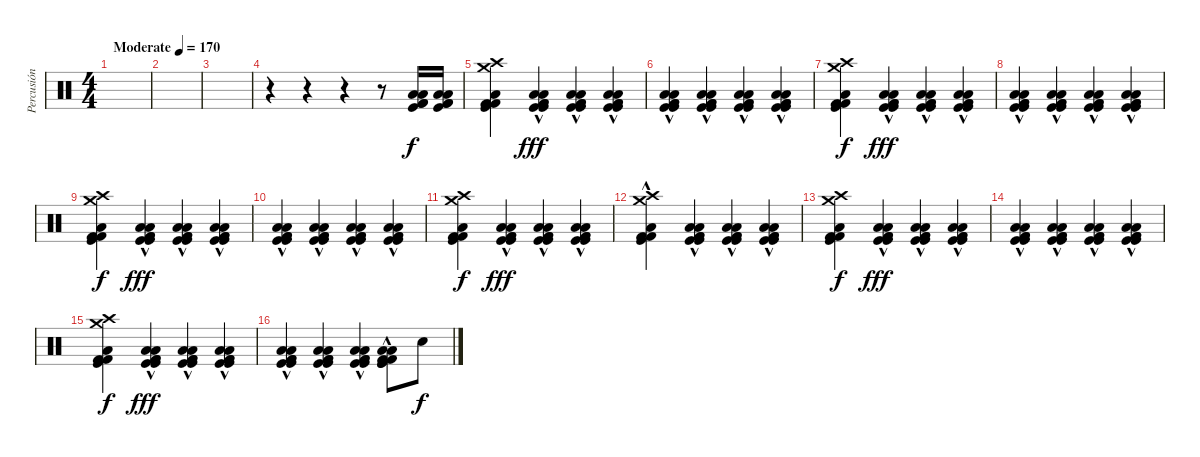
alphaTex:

\track ("Percusión" "Percusión") {instrument percussion}
\staff {score}
\articulation defaults
\ts (4 4)
\tempo (170 "Moderate")
\clef neutral
\ks c
|
|
|
r.4 r.4 r.4 r.8 ("Low Tom (hit)" "Kick (hit)" "Kick (hit) 2" "Kick (hit) 2" "Low Floor Tom (hit)").16 ("Low Tom (hit)" "Kick (hit)" "Kick (hit) 2" "Kick (hit) 2" "Low Floor Tom (hit)").16 |
("Crash medium (hit)" "Crash high (hit)" "Kick (hit)" "Kick (hit) 2" "Kick (hit) 2" "Low Floor Tom (hit)").4 ("Low Tom (hit)"{hac} "Kick (hit)"{hac} "Kick (hit)"{hac} "Kick (hit) 2"{hac} "Kick (hit) 2"{hac} "Low Floor Tom (hit)"{hac}).4{dy fff} ("Low Tom (hit)"{hac} "Kick (hit)"{hac} "Kick (hit)"{hac} "Kick (hit) 2"{hac} "Kick (hit) 2"{hac} "Low Floor Tom (hit)"{hac}).4 ("Low Tom (hit)"{hac} "Kick (hit)"{hac} "Kick (hit)"{hac} "Kick (hit) 2"{hac} "Kick (hit) 2"{hac} "Low Floor Tom (hit)"{hac}).4 |
("Low Tom (hit)"{hac} "Kick (hit)"{hac} "Kick (hit)"{hac} "Kick (hit) 2"{hac} "Kick (hit) 2"{hac} "Low Floor Tom (hit)"{hac}).4 ("Low Tom (hit)"{hac} "Kick (hit)"{hac} "Kick (hit)"{hac} "Kick (hit) 2"{hac} "Kick (hit) 2"{hac} "Low Floor Tom (hit)"{hac}).4 ("Low Tom (hit)"{hac} "Kick (hit)"{hac} "Kick (hit)"{hac} "Kick (hit) 2"{hac} "Kick (hit) 2"{hac} "Low Floor Tom (hit)"{hac}).4 ("Low Tom (hit)"{hac} "Kick (hit)"{hac} "Kick (hit)"{hac} "Kick (hit) 2"{hac} "Kick (hit) 2"{hac} "Low Floor Tom (hit)"{hac}).4 |
("Crash medium (hit)" "Crash high (hit)" "Kick (hit)" "Kick (hit) 2" "Kick (hit) 2" "Low Floor Tom (hit)").4{dy f} ("Low Tom (hit)"{hac} "Kick (hit)"{hac} "Kick (hit)"{hac} "Kick (hit) 2"{hac} "Kick (hit) 2"{hac} "Low Floor Tom (hit)"{hac}).4{dy fff} ("Low Tom (hit)"{hac} "Kick (hit)"{hac} "Kick (hit)"{hac} "Kick (hit) 2"{hac} "Kick (hit) 2"{hac} "Low Floor Tom (hit)"{hac}).4 ("Low Tom (hit)"{hac} "Kick (hit)"{hac} "Kick (hit)"{hac} "Kick (hit) 2"{hac} "Kick (hit) 2"{hac} "Low Floor Tom (hit)"{hac}).4 |
("Low Tom (hit)"{hac} "Kick (hit)"{hac} "Kick (hit)"{hac} "Kick (hit) 2"{hac} "Kick (hit) 2"{hac} "Low Floor Tom (hit)"{hac}).4 ("Low Tom (hit)"{hac} "Kick (hit)"{hac} "Kick (hit)"{hac} "Kick (hit) 2"{hac} "Kick (hit) 2"{hac} "Low Floor Tom (hit)"{hac}).4 ("Low Tom (hit)"{hac} "Kick (hit)"{hac} "Kick (hit)"{hac} "Kick (hit) 2"{hac} "Kick (hit) 2"{hac} "Low Floor Tom (hit)"{hac}).4 ("Low Tom (hit)"{hac} "Kick (hit)"{hac} "Kick (hit)"{hac} "Kick (hit) 2"{hac} "Kick (hit) 2"{hac} "Low Floor Tom (hit)"{hac}).4 |
("Crash medium (hit)" "Crash high (hit)" "Kick (hit)" "Kick (hit) 2" "Kick (hit) 2" "Low Floor Tom (hit)").4{dy f} ("Low Tom (hit)"{hac} "Kick (hit)"{hac} "Kick (hit)"{hac} "Kick (hit) 2"{hac} "Kick (hit) 2"{hac} "Low Floor Tom (hit)"{hac}).4{dy fff} ("Low Tom (hit)"{hac} "Kick (hit)"{hac} "Kick (hit)"{hac} "Kick (hit) 2"{hac} "Kick (hit) 2"{hac} "Low Floor Tom (hit)"{hac}).4 ("Low Tom (hit)"{hac} "Kick (hit)"{hac} "Kick (hit)"{hac} "Kick (hit) 2"{hac} "Kick (hit) 2"{hac} "Low Floor Tom (hit)"{hac}).4 |
("Low Tom (hit)"{hac} "Kick (hit)"{hac} "Kick (hit)"{hac} "Kick (hit) 2"{hac} "Kick (hit) 2"{hac} "Low Floor Tom (hit)"{hac}).4 ("Low Tom (hit)"{hac} "Kick (hit)"{hac} "Kick (hit)"{hac} "Kick (hit) 2"{hac} "Kick (hit) 2"{hac} "Low Floor Tom (hit)"{hac}).4 ("Low Tom (hit)"{hac} "Kick (hit)"{hac} "Kick (hit)"{hac} "Kick (hit) 2"{hac} "Kick (hit) 2"{hac} "Low Floor Tom (hit)"{hac}).4 ("Low Tom (hit)"{hac} "Kick (hit)"{hac} "Kick (hit)"{hac} "Kick (hit) 2"{hac} "Kick (hit) 2"{hac} "Low Floor Tom (hit)"{hac}).4 |
("Crash medium (hit)" "Crash high (hit)" "Kick (hit)" "Kick (hit) 2" "Kick (hit) 2" "Low Floor Tom (hit)").4{dy f} ("Low Tom (hit)"{hac} "Kick (hit)"{hac} "Kick (hit)"{hac} "Kick (hit) 2"{hac} "Kick (hit) 2"{hac} "Low Floor Tom (hit)"{hac}).4{dy fff} ("Low Tom (hit)"{hac} "Kick (hit)"{hac} "Kick (hit)"{hac} "Kick (hit) 2"{hac} "Kick (hit) 2"{hac} "Low Floor Tom (hit)"{hac}).4 ("Low Tom (hit)"{hac} "Kick (hit)"{hac} "Kick (hit)"{hac} "Kick (hit) 2"{hac} "Kick (hit) 2"{hac} "Low Floor Tom (hit)"{hac}).4 |
("Crash medium (hit)"{hac} "Crash high (hit)"{hac} "Kick (hit)"{hac} "Kick (hit) 2"{hac} "Kick (hit) 2"{hac} "Low Floor Tom (hit)"{hac}).4 ("Low Tom (hit)"{hac} "Kick (hit)"{hac} "Kick (hit)"{hac} "Kick (hit) 2"{hac} "Kick (hit) 2"{hac} "Low Floor Tom (hit)"{hac}).4 ("Low Tom (hit)"{hac} "Kick (hit)"{hac} "Kick (hit)"{hac} "Kick (hit) 2"{hac} "Kick (hit) 2"{hac} "Low Floor Tom (hit)"{hac}).4 ("Low Tom (hit)"{hac} "Kick (hit)"{hac} "Kick (hit)"{hac} "Kick (hit) 2"{hac} "Kick (hit) 2"{hac} "Low Floor Tom (hit)"{hac}).4 |
("Crash medium (hit)" "Crash high (hit)" "Kick (hit)" "Kick (hit) 2" "Kick (hit) 2" "Low Floor Tom (hit)").4{dy f} ("Low Tom (hit)"{hac} "Kick (hit)"{hac} "Kick (hit)"{hac} "Kick (hit) 2"{hac} "Kick (hit) 2"{hac} "Low Floor Tom (hit)"{hac}).4{dy fff} ("Low Tom (hit)"{hac} "Kick (hit)"{hac} "Kick (hit)"{hac} "Kick (hit) 2"{hac} "Kick (hit) 2"{hac} "Low Floor Tom (hit)"{hac}).4 ("Low Tom (hit)"{hac} "Kick (hit)"{hac} "Kick (hit)"{hac} "Kick (hit) 2"{hac} "Kick (hit) 2"{hac} "Low Floor Tom (hit)"{hac}).4 |
("Low Tom (hit)"{hac} "Kick (hit)"{hac} "Kick (hit)"{hac} "Kick (hit) 2"{hac} "Kick (hit) 2"{hac} "Low Floor Tom (hit)"{hac}).4 ("Low Tom (hit)"{hac} "Kick (hit)"{hac} "Kick (hit)"{hac} "Kick (hit) 2"{hac} "Kick (hit) 2"{hac} "Low Floor Tom (hit)"{hac}).4 ("Low Tom (hit)"{hac} "Kick (hit)"{hac} "Kick (hit)"{hac} "Kick (hit) 2"{hac} "Kick (hit) 2"{hac} "Low Floor Tom (hit)"{hac}).4 ("Low Tom (hit)"{hac} "Kick (hit)"{hac} "Kick (hit)"{hac} "Kick (hit) 2"{hac} "Kick (hit) 2"{hac} "Low Floor Tom (hit)"{hac}).4 |
("Crash medium (hit)" "Crash high (hit)" "Kick (hit)" "Kick (hit) 2" "Kick (hit) 2" "Low Floor Tom (hit)").4{dy f} ("Low Tom (hit)"{hac} "Kick (hit)"{hac} "Kick (hit)"{hac} "Kick (hit) 2"{hac} "Kick (hit) 2"{hac} "Low Floor Tom (hit)"{hac}).4{dy fff} ("Low Tom (hit)"{hac} "Kick (hit)"{hac} "Kick (hit)"{hac} "Kick (hit) 2"{hac} "Kick (hit) 2"{hac} "Low Floor Tom (hit)"{hac}).4 ("Low Tom (hit)"{hac} "Kick (hit)"{hac} "Kick (hit)"{hac} "Kick (hit) 2"{hac} "Kick (hit) 2"{hac} "Low Floor Tom (hit)"{hac}).4 |
("Low Tom (hit)"{hac} "Kick (hit)"{hac} "Kick (hit)"{hac} "Kick (hit) 2"{hac} "Kick (hit) 2"{hac} "Low Floor Tom (hit)"{hac}).4 ("Low Tom (hit)"{hac} "Kick (hit)"{hac} "Kick (hit)"{hac} "Kick (hit) 2"{hac} "Kick (hit) 2"{hac} "Low Floor Tom (hit)"{hac}).4 ("Low Tom (hit)"{hac} "Kick (hit)"{hac} "Kick (hit)"{hac} "Kick (hit) 2"{hac} "Kick (hit) 2"{hac} "Low Floor Tom (hit)"{hac}).4 ("Low Tom (hit)"{hac} "Kick (hit)"{hac} "Kick (hit)"{hac} "Kick (hit) 2"{hac} "Kick (hit) 2"{hac} "Low Floor Tom (hit)"{hac}).8 "Electric Snare (hit)".8{dy f}
